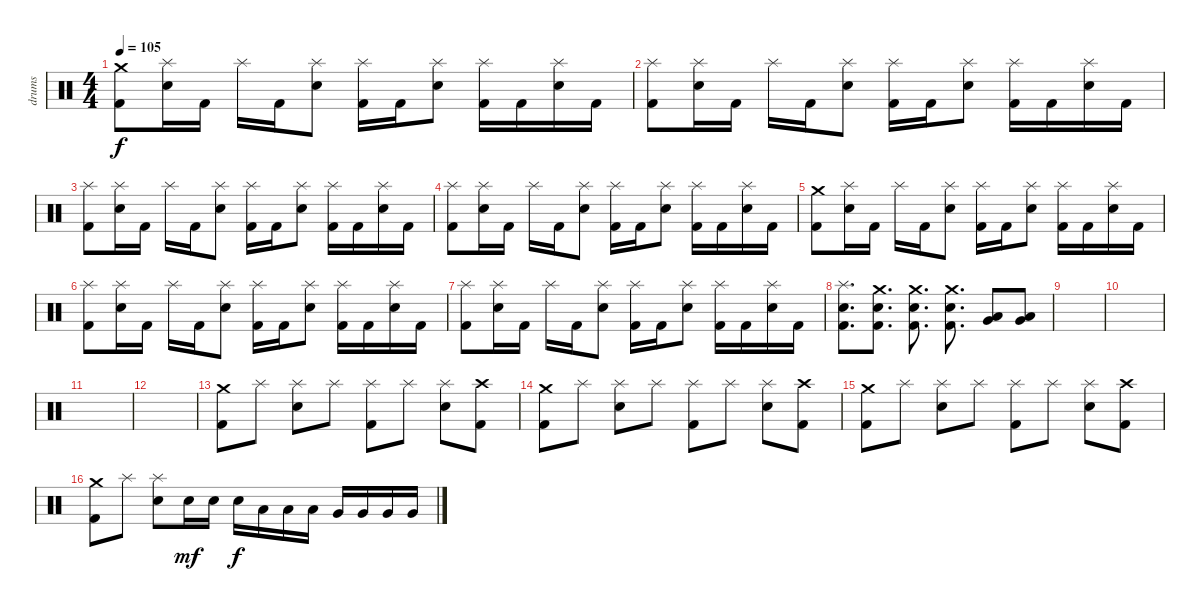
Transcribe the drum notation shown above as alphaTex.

\track ("drums" "drums") {instrument percussion}
\staff {score}
\articulation defaults
\ts (4 4)
\tempo 105
\clef neutral
\ks c
("Crash medium (hit)" "Kick (hit) 2").8{dy f} ("Splash (hit)" "Electric Snare (hit)").16 "Kick (hit) 2".16 "Splash (hit)".16 "Kick (hit) 2".16 ("Splash (hit)" "Electric Snare (hit)").8 ("Splash (hit)" "Kick (hit) 2").16 "Kick (hit) 2".16 ("Splash (hit)" "Electric Snare (hit)").8 ("Splash (hit)" "Kick (hit) 2").16 "Kick (hit) 2".16 ("Splash (hit)" "Electric Snare (hit)").16 "Kick (hit) 2".16 |
("Splash (hit)" "Kick (hit) 2").8 ("Splash (hit)" "Electric Snare (hit)").16 "Kick (hit) 2".16 "Splash (hit)".16 "Kick (hit) 2".16 ("Splash (hit)" "Electric Snare (hit)").8 ("Splash (hit)" "Kick (hit) 2").16 "Kick (hit) 2".16 ("Splash (hit)" "Electric Snare (hit)").8 ("Splash (hit)" "Kick (hit) 2").16 "Kick (hit) 2".16 ("Splash (hit)" "Electric Snare (hit)").16 "Kick (hit) 2".16 |
("Splash (hit)" "Kick (hit) 2").8 ("Splash (hit)" "Electric Snare (hit)").16 "Kick (hit) 2".16 "Splash (hit)".16 "Kick (hit) 2".16 ("Splash (hit)" "Electric Snare (hit)").8 ("Splash (hit)" "Kick (hit) 2").16 "Kick (hit) 2".16 ("Splash (hit)" "Electric Snare (hit)").8 ("Splash (hit)" "Kick (hit) 2").16 "Kick (hit) 2".16 ("Splash (hit)" "Electric Snare (hit)").16 "Kick (hit) 2".16 |
("Splash (hit)" "Kick (hit) 2").8 ("Splash (hit)" "Electric Snare (hit)").16 "Kick (hit) 2".16 "Splash (hit)".16 "Kick (hit) 2".16 ("Splash (hit)" "Electric Snare (hit)").8 ("Splash (hit)" "Kick (hit) 2").16 "Kick (hit) 2".16 ("Splash (hit)" "Electric Snare (hit)").8 ("Splash (hit)" "Kick (hit) 2").16 "Kick (hit) 2".16 ("Splash (hit)" "Electric Snare (hit)").16 "Kick (hit) 2".16 |
("Crash medium (hit)" "Kick (hit) 2").8 ("Splash (hit)" "Electric Snare (hit)").16 "Kick (hit) 2".16 "Splash (hit)".16 "Kick (hit) 2".16 ("Splash (hit)" "Electric Snare (hit)").8 ("Splash (hit)" "Kick (hit) 2").16 "Kick (hit) 2".16 ("Splash (hit)" "Electric Snare (hit)").8 ("Splash (hit)" "Kick (hit) 2").16 "Kick (hit) 2".16 ("Splash (hit)" "Electric Snare (hit)").16 "Kick (hit) 2".16 |
("Splash (hit)" "Kick (hit) 2").8 ("Splash (hit)" "Electric Snare (hit)").16 "Kick (hit) 2".16 "Splash (hit)".16 "Kick (hit) 2".16 ("Splash (hit)" "Electric Snare (hit)").8 ("Splash (hit)" "Kick (hit) 2").16 "Kick (hit) 2".16 ("Splash (hit)" "Electric Snare (hit)").8 ("Splash (hit)" "Kick (hit) 2").16 "Kick (hit) 2".16 ("Splash (hit)" "Electric Snare (hit)").16 "Kick (hit) 2".16 |
("Splash (hit)" "Kick (hit) 2").8 ("Splash (hit)" "Electric Snare (hit)").16 "Kick (hit) 2".16 "Splash (hit)".16 "Kick (hit) 2".16 ("Splash (hit)" "Electric Snare (hit)").8 ("Splash (hit)" "Kick (hit) 2").16 "Kick (hit) 2".16 ("Splash (hit)" "Electric Snare (hit)").8 ("Splash (hit)" "Kick (hit) 2").16 "Kick (hit) 2".16 ("Splash (hit)" "Electric Snare (hit)").16 "Kick (hit) 2".16 |
("Splash (hit)" "Electric Snare (hit)" "Kick (hit) 2").8{d} ("Crash medium (hit)" "Electric Snare (hit)" "Kick (hit) 2").8{d} ("Crash medium (hit)" "Electric Snare (hit)" "Kick (hit) 2").8{d} ("Crash medium (hit)" "Electric Snare (hit)" "Kick (hit) 2").8{d} ("Low Tom (hit)" "Very Low Tom (hit)").8 ("Low Tom (hit)" "Very Low Tom (hit)").8 |
|
|
|
|
("Crash medium (hit)" "Kick (hit) 2").8 "Splash (hit)".8 ("Splash (hit)" "Electric Snare (hit)").8 "Splash (hit)".8 ("Splash (hit)" "Kick (hit) 2").8 "Splash (hit)".8 ("Splash (hit)" "Electric Snare (hit)").8 ("Crash high (hit)" "Kick (hit) 2").8 |
("Crash medium (hit)" "Kick (hit) 2").8 "Splash (hit)".8 ("Splash (hit)" "Electric Snare (hit)").8 "Splash (hit)".8 ("Splash (hit)" "Kick (hit) 2").8 "Splash (hit)".8 ("Splash (hit)" "Electric Snare (hit)").8 ("Crash high (hit)" "Kick (hit) 2").8 |
("Crash medium (hit)" "Kick (hit) 2").8 "Splash (hit)".8 ("Splash (hit)" "Electric Snare (hit)").8 "Splash (hit)".8 ("Splash (hit)" "Kick (hit) 2").8 "Splash (hit)".8 ("Splash (hit)" "Electric Snare (hit)").8 ("Crash high (hit)" "Kick (hit) 2").8 |
("Crash medium (hit)" "Kick (hit) 2").8 "Splash (hit)".8 ("Splash (hit)" "Electric Snare (hit)").8 "Electric Snare (hit)".16{dy mf} "Electric Snare (hit)".16 "Electric Snare (hit)".16{dy f} "Low Tom (hit)".16 "Low Tom (hit)".16 "Low Tom (hit)".16 "Very Low Tom (hit)".16 "Very Low Tom (hit)".16 "Very Low Tom (hit)".16 "Very Low Tom (hit)".16
